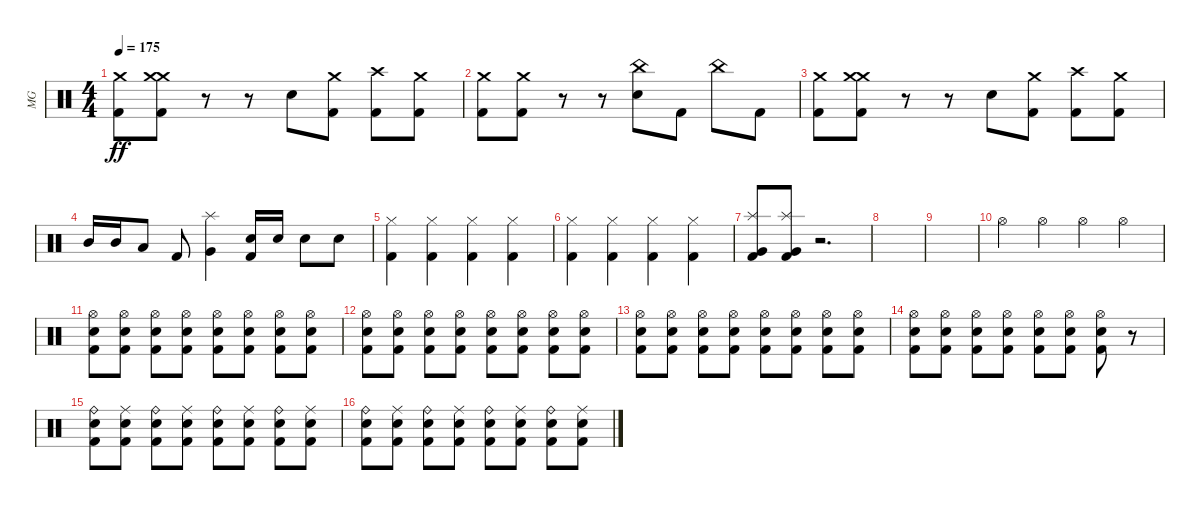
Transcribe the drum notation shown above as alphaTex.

\track ("MG" "MG") {instrument percussion}
\staff {score}
\articulation defaults
\ts (4 4)
\tempo 175
\clef neutral
\ks c
("Crash medium (hit)" "Kick (hit) 2").8{dy ff} ("Crash medium (hit)" "Crash medium (hit)" "Kick (hit) 2").8 r.8 r.8 "Electric Snare (hit)".8 ("Crash medium (hit)" "Kick (hit) 2").8 ("Crash high (hit)" "Kick (hit) 2").8 ("Crash medium (hit)" "Kick (hit) 2").8 |
("Crash medium (hit)" "Kick (hit) 2").8 ("Crash medium (hit)" "Kick (hit) 2").8 r.8 r.8 ("China (hit)" "Electric Snare (hit)").8 "Kick (hit) 2".8 "China (hit)".8 "Kick (hit) 2".8 |
("Crash medium (hit)" "Kick (hit) 2").8 ("Crash medium (hit)" "Crash medium (hit)" "Kick (hit) 2").8 r.8 r.8 "Electric Snare (hit)".8 ("Crash medium (hit)" "Kick (hit) 2").8 ("Crash high (hit)" "Kick (hit) 2").8 ("Crash medium (hit)" "Kick (hit) 2").8 |
"Mid Tom (hit)".16 "Mid Tom (hit)".16 "Low Tom (hit)".8 "Kick (hit) 2".8 ("Splash (hit)" "Very Low Tom (hit)").4 ("Electric Snare (hit)" "Kick (hit) 2").16 "Electric Snare (hit)".16 "Electric Snare (hit)".8 "Electric Snare (hit)".8 |
("Hi-Hat (closed)" "Kick (hit) 2").4 ("Hi-Hat (closed)" "Kick (hit) 2").4 ("Hi-Hat (closed)" "Kick (hit) 2").4 ("Hi-Hat (closed)" "Kick (hit) 2").4 |
("Hi-Hat (closed)" "Kick (hit) 2").4 ("Hi-Hat (closed)" "Kick (hit) 2").4 ("Hi-Hat (closed)" "Kick (hit) 2").4 ("Hi-Hat (closed)" "Kick (hit) 2").4 |
("Splash (hit)" "Very Low Tom (hit)" "Kick (hit) 2").8 ("Splash (hit)" "Very Low Tom (hit)" "Kick (hit) 2").8 r.2{d} |
|
|
"Hi-Hat (open)".4 "Hi-Hat (open)".4 "Hi-Hat (open)".4 "Hi-Hat (open)".4 |
("Hi-Hat (open)" "Electric Snare (hit)" "Kick (hit) 2").8 ("Hi-Hat (open)" "Electric Snare (hit)" "Kick (hit) 2").8 ("Hi-Hat (open)" "Electric Snare (hit)" "Kick (hit) 2").8 ("Hi-Hat (open)" "Electric Snare (hit)" "Kick (hit) 2").8 ("Hi-Hat (open)" "Electric Snare (hit)" "Kick (hit) 2").8 ("Hi-Hat (open)" "Electric Snare (hit)" "Kick (hit) 2").8 ("Hi-Hat (open)" "Electric Snare (hit)" "Kick (hit) 2").8 ("Hi-Hat (open)" "Electric Snare (hit)" "Kick (hit) 2").8 |
("Hi-Hat (open)" "Electric Snare (hit)" "Kick (hit) 2").8 ("Hi-Hat (open)" "Electric Snare (hit)" "Kick (hit) 2").8 ("Hi-Hat (open)" "Electric Snare (hit)" "Kick (hit) 2").8 ("Hi-Hat (open)" "Electric Snare (hit)" "Kick (hit) 2").8 ("Hi-Hat (open)" "Electric Snare (hit)" "Kick (hit) 2").8 ("Hi-Hat (open)" "Electric Snare (hit)" "Kick (hit) 2").8 ("Hi-Hat (open)" "Electric Snare (hit)" "Kick (hit) 2").8 ("Hi-Hat (open)" "Electric Snare (hit)" "Kick (hit) 2").8 |
("Hi-Hat (open)" "Electric Snare (hit)" "Kick (hit) 2").8 ("Hi-Hat (open)" "Electric Snare (hit)" "Kick (hit) 2").8 ("Hi-Hat (open)" "Electric Snare (hit)" "Kick (hit) 2").8 ("Hi-Hat (open)" "Electric Snare (hit)" "Kick (hit) 2").8 ("Hi-Hat (open)" "Electric Snare (hit)" "Kick (hit) 2").8 ("Hi-Hat (open)" "Electric Snare (hit)" "Kick (hit) 2").8 ("Hi-Hat (open)" "Electric Snare (hit)" "Kick (hit) 2").8 ("Hi-Hat (open)" "Electric Snare (hit)" "Kick (hit) 2").8 |
("Hi-Hat (open)" "Electric Snare (hit)" "Kick (hit) 2").8 ("Hi-Hat (open)" "Electric Snare (hit)" "Kick (hit) 2").8 ("Hi-Hat (open)" "Electric Snare (hit)" "Kick (hit) 2").8 ("Hi-Hat (open)" "Electric Snare (hit)" "Kick (hit) 2").8 ("Hi-Hat (open)" "Electric Snare (hit)" "Kick (hit) 2").8 ("Hi-Hat (open)" "Electric Snare (hit)" "Kick (hit) 2").8 ("Hi-Hat (open)" "Electric Snare (hit)" "Kick (hit) 2").8 r.8 |
("Ride (bell)" "Electric Snare (hit)" "Kick (hit) 2").8 ("Ride (middle)" "Electric Snare (hit)" "Kick (hit) 2").8 ("Ride (bell)" "Electric Snare (hit)" "Kick (hit) 2").8 ("Ride (middle)" "Electric Snare (hit)" "Kick (hit) 2").8 ("Ride (bell)" "Electric Snare (hit)" "Kick (hit) 2").8 ("Ride (middle)" "Electric Snare (hit)" "Kick (hit) 2").8 ("Ride (bell)" "Electric Snare (hit)" "Kick (hit) 2").8 ("Ride (middle)" "Electric Snare (hit)" "Kick (hit) 2").8 |
("Ride (bell)" "Electric Snare (hit)" "Kick (hit) 2").8 ("Ride (middle)" "Electric Snare (hit)" "Kick (hit) 2").8 ("Ride (bell)" "Electric Snare (hit)" "Kick (hit) 2").8 ("Ride (middle)" "Electric Snare (hit)" "Kick (hit) 2").8 ("Ride (bell)" "Electric Snare (hit)" "Kick (hit) 2").8 ("Ride (middle)" "Electric Snare (hit)" "Kick (hit) 2").8 ("Ride (bell)" "Electric Snare (hit)" "Kick (hit) 2").8 ("Ride (middle)" "Electric Snare (hit)" "Kick (hit) 2").8
